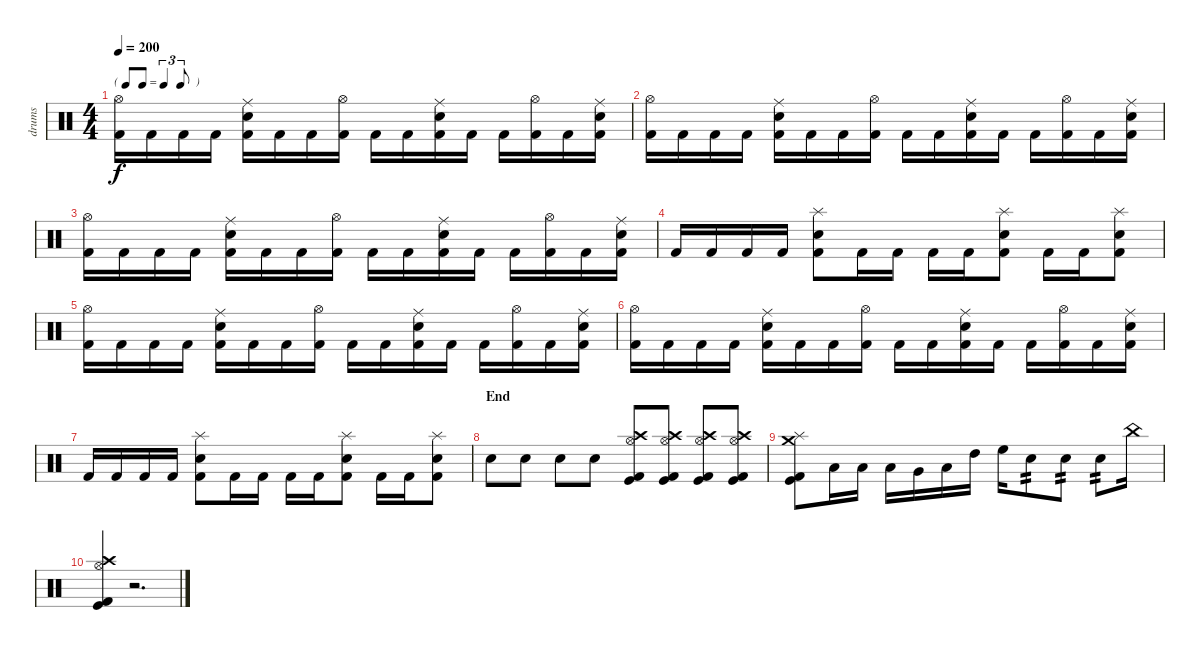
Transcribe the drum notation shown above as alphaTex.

\track ("drums" "drums") {instrument percussion}
\staff {score}
\articulation defaults
\ts (4 4)
\tf triplet8th
\tempo 200
\clef neutral
\ks c
("Kick (hit) 2" "Hi-Hat (open)").16{dy f} "Kick (hit) 2".16 "Kick (hit) 2".16 "Kick (hit) 2".16 ("Kick (hit) 2" "Electric Snare (hit)" "Ride (middle)").16 "Kick (hit) 2".16 "Kick (hit) 2".16 ("Kick (hit) 2" "Hi-Hat (open)").16 "Kick (hit) 2".16 "Kick (hit) 2".16 ("Kick (hit) 2" "Electric Snare (hit)" "Ride (middle)").16 "Kick (hit) 2".16 "Kick (hit) 2".16 ("Kick (hit) 2" "Hi-Hat (open)").16 "Kick (hit) 2".16 ("Kick (hit) 2" "Electric Snare (hit)" "Ride (middle)").16 |
("Kick (hit) 2" "Hi-Hat (open)").16 "Kick (hit) 2".16 "Kick (hit) 2".16 "Kick (hit) 2".16 ("Kick (hit) 2" "Electric Snare (hit)" "Ride (middle)").16 "Kick (hit) 2".16 "Kick (hit) 2".16 ("Kick (hit) 2" "Hi-Hat (open)").16 "Kick (hit) 2".16 "Kick (hit) 2".16 ("Kick (hit) 2" "Electric Snare (hit)" "Ride (middle)").16 "Kick (hit) 2".16 "Kick (hit) 2".16 ("Kick (hit) 2" "Hi-Hat (open)").16 "Kick (hit) 2".16 ("Kick (hit) 2" "Electric Snare (hit)" "Ride (middle)").16 |
("Kick (hit) 2" "Hi-Hat (open)").16 "Kick (hit) 2".16 "Kick (hit) 2".16 "Kick (hit) 2".16 ("Kick (hit) 2" "Electric Snare (hit)" "Ride (middle)").16 "Kick (hit) 2".16 "Kick (hit) 2".16 ("Kick (hit) 2" "Hi-Hat (open)").16 "Kick (hit) 2".16 "Kick (hit) 2".16 ("Kick (hit) 2" "Electric Snare (hit)" "Ride (middle)").16 "Kick (hit) 2".16 "Kick (hit) 2".16 ("Kick (hit) 2" "Hi-Hat (open)").16 "Kick (hit) 2".16 ("Kick (hit) 2" "Electric Snare (hit)" "Ride (middle)").16 |
"Kick (hit) 2".16 "Kick (hit) 2".16 "Kick (hit) 2".16 "Kick (hit) 2".16 ("Kick (hit) 2" "Electric Snare (hit)" "Splash (hit)").8 "Kick (hit) 2".16 "Kick (hit) 2".16 "Kick (hit) 2".16 "Kick (hit) 2".16 ("Kick (hit) 2" "Electric Snare (hit)" "Splash (hit)").8 "Kick (hit) 2".16 "Kick (hit) 2".16 ("Kick (hit) 2" "Electric Snare (hit)" "Splash (hit)").8 |
("Kick (hit) 2" "Hi-Hat (open)").16 "Kick (hit) 2".16 "Kick (hit) 2".16 "Kick (hit) 2".16 ("Kick (hit) 2" "Electric Snare (hit)" "Ride (middle)").16 "Kick (hit) 2".16 "Kick (hit) 2".16 ("Kick (hit) 2" "Hi-Hat (open)").16 "Kick (hit) 2".16 "Kick (hit) 2".16 ("Kick (hit) 2" "Electric Snare (hit)" "Ride (middle)").16 "Kick (hit) 2".16 "Kick (hit) 2".16 ("Kick (hit) 2" "Hi-Hat (open)").16 "Kick (hit) 2".16 ("Kick (hit) 2" "Electric Snare (hit)" "Ride (middle)").16 |
("Kick (hit) 2" "Hi-Hat (open)").16 "Kick (hit) 2".16 "Kick (hit) 2".16 "Kick (hit) 2".16 ("Kick (hit) 2" "Electric Snare (hit)" "Ride (middle)").16 "Kick (hit) 2".16 "Kick (hit) 2".16 ("Kick (hit) 2" "Hi-Hat (open)").16 "Kick (hit) 2".16 "Kick (hit) 2".16 ("Kick (hit) 2" "Electric Snare (hit)" "Ride (middle)").16 "Kick (hit) 2".16 "Kick (hit) 2".16 ("Kick (hit) 2" "Hi-Hat (open)").16 "Kick (hit) 2".16 ("Kick (hit) 2" "Electric Snare (hit)" "Ride (middle)").16 |
"Kick (hit) 2".16 "Kick (hit) 2".16 "Kick (hit) 2".16 "Kick (hit) 2".16 ("Kick (hit) 2" "Electric Snare (hit)" "Splash (hit)").8 "Kick (hit) 2".16 "Kick (hit) 2".16 "Kick (hit) 2".16 "Kick (hit) 2".16 ("Kick (hit) 2" "Electric Snare (hit)" "Splash (hit)").8 "Kick (hit) 2".16 "Kick (hit) 2".16 ("Kick (hit) 2" "Electric Snare (hit)" "Splash (hit)").8 |
\section ("" "End")
"Snare (hit) 2".8 "Snare (hit) 2".8 "Snare (hit) 2".8 "Snare (hit) 2".8 ("Crash high (hit)" "Hi-Hat (open)" "Kick (hit)" "Kick (hit) 2").8 ("Crash high (hit)" "Hi-Hat (open)" "Kick (hit)" "Kick (hit) 2").8 ("Crash high (hit)" "Hi-Hat (open)" "Kick (hit)" "Kick (hit) 2").8 ("Crash high (hit)" "Hi-Hat (open)" "Kick (hit)" "Kick (hit) 2").8 |
("Crash medium (hit)" "Splash (hit)" "Kick (hit)" "Kick (hit) 2").8 "Low Floor Tom (hit)".16 "Low Floor Tom (hit)".16 "Low Floor Tom (hit)".16 "Very Low Tom (hit)".16 "Low Tom (hit)".16 "High Tom (hit)".16 "High Floor Tom (hit)".16 "Snare (hit) 2".8{tp 2} "Snare (hit) 2".8{tp 2} "Snare (hit) 2".8{tp 2} "China (hit)".16 |
("Crash high (hit)" "Hi-Hat (open)" "Kick (hit)" "Kick (hit) 2").4 r.2{d}
